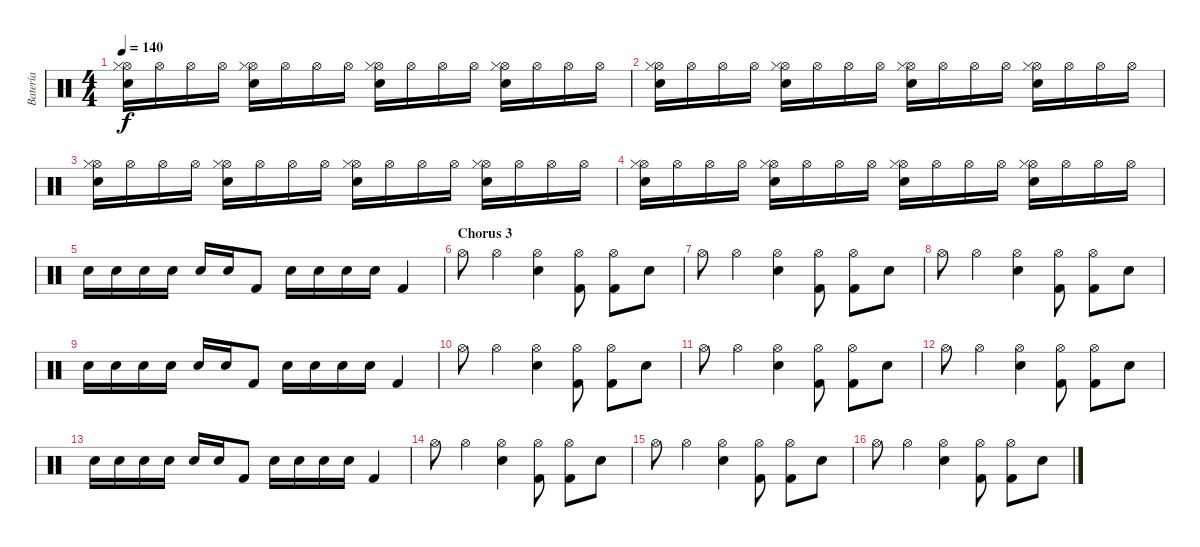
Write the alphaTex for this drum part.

\track ("Batería" "Batería") {instrument percussion}
\staff {score}
\articulation defaults
\ts (4 4)
\tempo 140
\clef neutral
\ks c
("Hi-Hat (open)" "Hi-Hat (closed)" "Snare (hit) 2").16{dy f} "Hi-Hat (open)".16 "Hi-Hat (open)".16 "Hi-Hat (open)".16 ("Hi-Hat (open)" "Hi-Hat (closed)" "Snare (hit) 2").16 "Hi-Hat (open)".16 "Hi-Hat (open)".16 "Hi-Hat (open)".16 ("Hi-Hat (open)" "Hi-Hat (closed)" "Snare (hit) 2").16 "Hi-Hat (open)".16 "Hi-Hat (open)".16 "Hi-Hat (open)".16 ("Hi-Hat (open)" "Hi-Hat (closed)" "Snare (hit) 2").16 "Hi-Hat (open)".16 "Hi-Hat (open)".16 "Hi-Hat (open)".16 |
("Hi-Hat (open)" "Hi-Hat (closed)" "Snare (hit) 2").16 "Hi-Hat (open)".16 "Hi-Hat (open)".16 "Hi-Hat (open)".16 ("Hi-Hat (open)" "Hi-Hat (closed)" "Snare (hit) 2").16 "Hi-Hat (open)".16 "Hi-Hat (open)".16 "Hi-Hat (open)".16 ("Hi-Hat (open)" "Hi-Hat (closed)" "Snare (hit) 2").16 "Hi-Hat (open)".16 "Hi-Hat (open)".16 "Hi-Hat (open)".16 ("Hi-Hat (open)" "Hi-Hat (closed)" "Snare (hit) 2").16 "Hi-Hat (open)".16 "Hi-Hat (open)".16 "Hi-Hat (open)".16 |
("Hi-Hat (open)" "Hi-Hat (closed)" "Snare (hit) 2").16 "Hi-Hat (open)".16 "Hi-Hat (open)".16 "Hi-Hat (open)".16 ("Hi-Hat (open)" "Hi-Hat (closed)" "Snare (hit) 2").16 "Hi-Hat (open)".16 "Hi-Hat (open)".16 "Hi-Hat (open)".16 ("Hi-Hat (open)" "Hi-Hat (closed)" "Snare (hit) 2").16 "Hi-Hat (open)".16 "Hi-Hat (open)".16 "Hi-Hat (open)".16 ("Hi-Hat (open)" "Hi-Hat (closed)" "Snare (hit) 2").16 "Hi-Hat (open)".16 "Hi-Hat (open)".16 "Hi-Hat (open)".16 |
("Hi-Hat (open)" "Hi-Hat (closed)" "Snare (hit) 2").16 "Hi-Hat (open)".16 "Hi-Hat (open)".16 "Hi-Hat (open)".16 ("Hi-Hat (open)" "Hi-Hat (closed)" "Snare (hit) 2").16 "Hi-Hat (open)".16 "Hi-Hat (open)".16 "Hi-Hat (open)".16 ("Hi-Hat (open)" "Hi-Hat (closed)" "Snare (hit) 2").16 "Hi-Hat (open)".16 "Hi-Hat (open)".16 "Hi-Hat (open)".16 ("Hi-Hat (open)" "Hi-Hat (closed)" "Snare (hit) 2").16 "Hi-Hat (open)".16 "Hi-Hat (open)".16 "Hi-Hat (open)".16 |
"Snare (hit) 2".16 "Snare (hit) 2".16 "Snare (hit) 2".16 "Snare (hit) 2".16 "Snare (hit) 2".16 "Snare (hit) 2".16 "Kick (hit) 2".8 "Snare (hit) 2".16 "Snare (hit) 2".16 "Snare (hit) 2".16 "Snare (hit) 2".16 "Kick (hit) 2".4 |
\section ("" "Chorus 3")
"Hi-Hat (open)".8 "Hi-Hat (open)".4 ("Hi-Hat (open)" "Snare (hit) 2").4 ("Hi-Hat (open)" "Kick (hit) 2").8 ("Hi-Hat (open)" "Kick (hit) 2").8 "Snare (hit) 2".8 |
"Hi-Hat (open)".8 "Hi-Hat (open)".4 ("Hi-Hat (open)" "Snare (hit) 2").4 ("Hi-Hat (open)" "Kick (hit) 2").8 ("Hi-Hat (open)" "Kick (hit) 2").8 "Snare (hit) 2".8 |
"Hi-Hat (open)".8 "Hi-Hat (open)".4 ("Hi-Hat (open)" "Snare (hit) 2").4 ("Hi-Hat (open)" "Kick (hit) 2").8 ("Hi-Hat (open)" "Kick (hit) 2").8 "Snare (hit) 2".8 |
"Snare (hit) 2".16 "Snare (hit) 2".16 "Snare (hit) 2".16 "Snare (hit) 2".16 "Snare (hit) 2".16 "Snare (hit) 2".16 "Kick (hit) 2".8 "Snare (hit) 2".16 "Snare (hit) 2".16 "Snare (hit) 2".16 "Snare (hit) 2".16 "Kick (hit) 2".4 |
"Hi-Hat (open)".8 "Hi-Hat (open)".4 ("Hi-Hat (open)" "Snare (hit) 2").4 ("Hi-Hat (open)" "Kick (hit) 2").8 ("Hi-Hat (open)" "Kick (hit) 2").8 "Snare (hit) 2".8 |
"Hi-Hat (open)".8 "Hi-Hat (open)".4 ("Hi-Hat (open)" "Snare (hit) 2").4 ("Hi-Hat (open)" "Kick (hit) 2").8 ("Hi-Hat (open)" "Kick (hit) 2").8 "Snare (hit) 2".8 |
"Hi-Hat (open)".8 "Hi-Hat (open)".4 ("Hi-Hat (open)" "Snare (hit) 2").4 ("Hi-Hat (open)" "Kick (hit) 2").8 ("Hi-Hat (open)" "Kick (hit) 2").8 "Snare (hit) 2".8 |
"Snare (hit) 2".16 "Snare (hit) 2".16 "Snare (hit) 2".16 "Snare (hit) 2".16 "Snare (hit) 2".16 "Snare (hit) 2".16 "Kick (hit) 2".8 "Snare (hit) 2".16 "Snare (hit) 2".16 "Snare (hit) 2".16 "Snare (hit) 2".16 "Kick (hit) 2".4 |
"Hi-Hat (open)".8 "Hi-Hat (open)".4 ("Hi-Hat (open)" "Snare (hit) 2").4 ("Hi-Hat (open)" "Kick (hit) 2").8 ("Hi-Hat (open)" "Kick (hit) 2").8 "Snare (hit) 2".8 |
"Hi-Hat (open)".8 "Hi-Hat (open)".4 ("Hi-Hat (open)" "Snare (hit) 2").4 ("Hi-Hat (open)" "Kick (hit) 2").8 ("Hi-Hat (open)" "Kick (hit) 2").8 "Snare (hit) 2".8 |
"Hi-Hat (open)".8 "Hi-Hat (open)".4 ("Hi-Hat (open)" "Snare (hit) 2").4 ("Hi-Hat (open)" "Kick (hit) 2").8 ("Hi-Hat (open)" "Kick (hit) 2").8 "Snare (hit) 2".8
